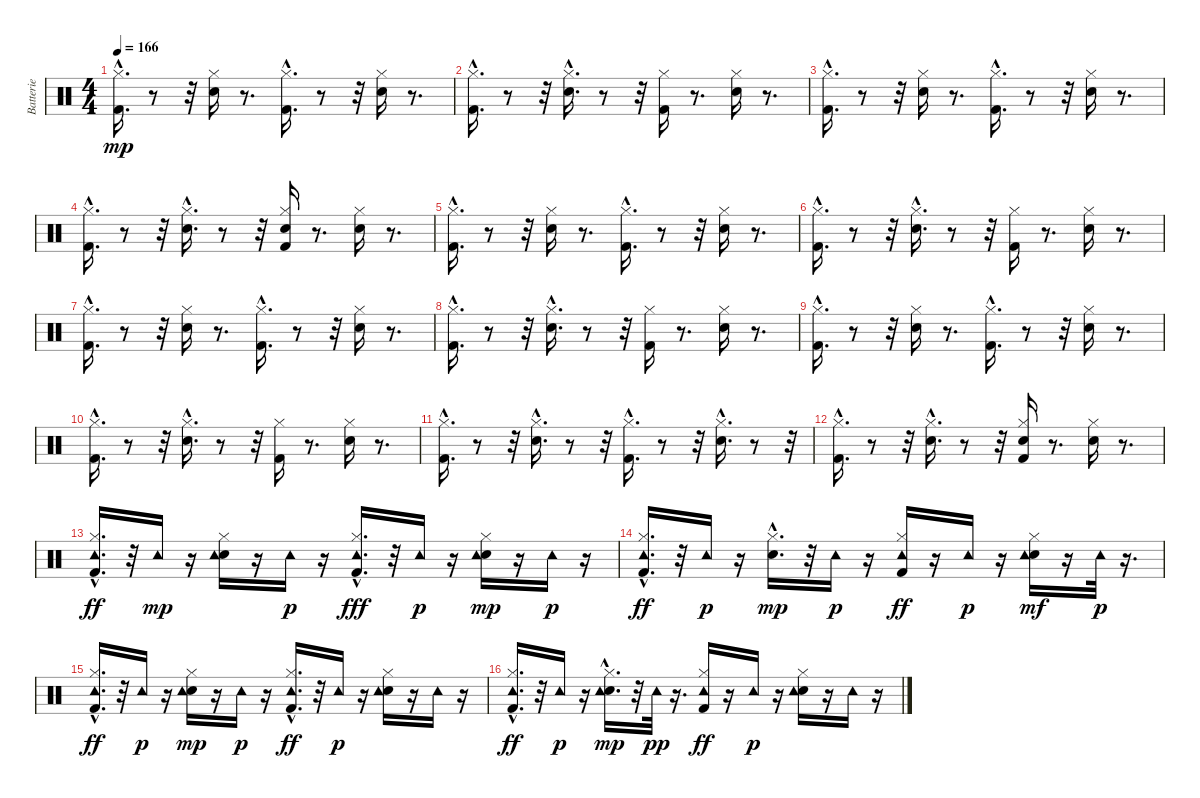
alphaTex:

\track ("Batterie" "Batterie") {instrument percussion}
\staff {score}
\articulation defaults
\ts (4 4)
\tempo 166
\clef neutral
\ks c
("Kick (hit) 2"{hac} "Hi-Hat (closed)"{hac}).16{d dy mp} r.8 r.32 ("Electric Snare (hit)" "Hi-Hat (closed)").16 r.8{d} ("Kick (hit) 2"{hac} "Hi-Hat (closed)").16{d} r.8 r.32 ("Electric Snare (hit)" "Hi-Hat (closed)").16 r.8{d} |
("Kick (hit) 2"{hac} "Hi-Hat (closed)").16{d} r.8 r.32 ("Electric Snare (hit)" "Hi-Hat (closed)"{hac}).16{d} r.8 r.32 ("Kick (hit) 2" "Hi-Hat (closed)").16 r.8{d} ("Electric Snare (hit)" "Hi-Hat (closed)").16 r.8{d} |
("Kick (hit) 2"{hac} "Hi-Hat (closed)"{hac}).16{d} r.8 r.32 ("Electric Snare (hit)" "Hi-Hat (closed)").16 r.8{d} ("Kick (hit) 2"{hac} "Hi-Hat (closed)").16{d} r.8 r.32 ("Electric Snare (hit)" "Hi-Hat (closed)").16 r.8{d} |
("Kick (hit) 2"{hac} "Hi-Hat (closed)").16{d} r.8 r.32 ("Electric Snare (hit)" "Hi-Hat (closed)"{hac}).16{d} r.8 r.32 ("Kick (hit) 2" "Electric Snare (hit)" "Hi-Hat (closed)").16 r.8{d} ("Electric Snare (hit)" "Hi-Hat (closed)").16 r.8{d} |
("Kick (hit) 2"{hac} "Hi-Hat (closed)"{hac}).16{d} r.8 r.32 ("Electric Snare (hit)" "Hi-Hat (closed)").16 r.8{d} ("Kick (hit) 2"{hac} "Hi-Hat (closed)").16{d} r.8 r.32 ("Electric Snare (hit)" "Hi-Hat (closed)").16 r.8{d} |
("Kick (hit) 2"{hac} "Hi-Hat (closed)").16{d} r.8 r.32 ("Electric Snare (hit)" "Hi-Hat (closed)"{hac}).16{d} r.8 r.32 ("Kick (hit) 2" "Hi-Hat (closed)").16 r.8{d} ("Electric Snare (hit)" "Hi-Hat (closed)").16 r.8{d} |
("Kick (hit) 2"{hac} "Hi-Hat (closed)"{hac}).16{d} r.8 r.32 ("Electric Snare (hit)" "Hi-Hat (closed)").16 r.8{d} ("Kick (hit) 2"{hac} "Hi-Hat (closed)").16{d} r.8 r.32 ("Electric Snare (hit)" "Hi-Hat (closed)").16 r.8{d} |
("Kick (hit) 2"{hac} "Hi-Hat (closed)").16{d} r.8 r.32 ("Electric Snare (hit)" "Hi-Hat (closed)"{hac}).16{d} r.8 r.32 ("Kick (hit) 2" "Hi-Hat (closed)").16 r.8{d} ("Electric Snare (hit)" "Hi-Hat (closed)").16 r.8{d} |
("Kick (hit) 2"{hac} "Hi-Hat (closed)"{hac}).16{d} r.8 r.32 ("Electric Snare (hit)" "Hi-Hat (closed)").16 r.8{d} ("Kick (hit) 2"{hac} "Hi-Hat (closed)").16{d} r.8 r.32 ("Electric Snare (hit)" "Hi-Hat (closed)").16 r.8{d} |
("Kick (hit) 2"{hac} "Hi-Hat (closed)").16{d} r.8 r.32 ("Electric Snare (hit)" "Hi-Hat (closed)"{hac}).16{d} r.8 r.32 ("Kick (hit) 2" "Hi-Hat (closed)").16 r.8{d} ("Electric Snare (hit)" "Hi-Hat (closed)").16 r.8{d} |
("Kick (hit) 2"{hac} "Hi-Hat (closed)"{hac}).16{d} r.8 r.32 ("Electric Snare (hit)"{hac} "Hi-Hat (closed)").16{d} r.8 r.32 ("Kick (hit) 2"{hac} "Hi-Hat (closed)").16{d} r.8 r.32 ("Electric Snare (hit)"{hac} "Hi-Hat (closed)").16{d} r.8 r.32 |
("Kick (hit) 2"{hac} "Hi-Hat (closed)").16{d} r.8 r.32 ("Electric Snare (hit)" "Hi-Hat (closed)"{hac}).16{d} r.8 r.32 ("Kick (hit) 2" "Electric Snare (hit)" "Hi-Hat (closed)").16 r.8{d} ("Electric Snare (hit)" "Hi-Hat (closed)").16 r.8{d} |
("Kick (hit) 2"{hac} "Hi-Hat (closed)"{hac} "Tambourine (hit)").16{d dy ff} r.32 "Tambourine (hit)".16{dy mp} r.16 ("Electric Snare (hit)" "Hi-Hat (closed)" "Tambourine (hit)").16 r.16 "Tambourine (hit)".16{dy p} r.16 ("Kick (hit) 2"{hac} "Hi-Hat (closed)" "Tambourine (hit)").16{d dy fff} r.32 "Tambourine (hit)".16{dy p} r.16 ("Electric Snare (hit)" "Hi-Hat (closed)" "Tambourine (hit)").16{dy mp} r.16 "Tambourine (hit)".16{dy p} r.16 |
("Kick (hit) 2"{hac} "Hi-Hat (closed)" "Tambourine (hit)").16{d dy ff} r.32 "Tambourine (hit)".16{dy p} r.16 ("Electric Snare (hit)" "Hi-Hat (closed)"{hac}).16{d dy mp} r.32 "Tambourine (hit)".16{dy p} r.16 ("Kick (hit) 2" "Hi-Hat (closed)" "Tambourine (hit)").16{dy ff} r.16 "Tambourine (hit)".16{dy p} r.16 ("Electric Snare (hit)" "Hi-Hat (closed)" "Tambourine (hit)").16{dy mf} r.16 "Tambourine (hit)".32{dy p} r.16{d} |
("Kick (hit) 2"{hac} "Hi-Hat (closed)"{hac} "Tambourine (hit)").16{d dy ff} r.32 "Tambourine (hit)".16{dy p} r.16 ("Electric Snare (hit)" "Hi-Hat (closed)" "Tambourine (hit)").16{dy mp} r.16 "Tambourine (hit)".16{dy p} r.16 ("Kick (hit) 2"{hac} "Hi-Hat (closed)" "Tambourine (hit)").16{d dy ff} r.32 "Tambourine (hit)".16{dy p} r.16 ("Electric Snare (hit)" "Hi-Hat (closed)" "Tambourine (hit)").16 r.16 "Tambourine (hit)".16 r.16 |
("Kick (hit) 2"{hac} "Hi-Hat (closed)" "Tambourine (hit)").16{d dy ff} r.32 "Tambourine (hit)".16{dy p} r.16 ("Electric Snare (hit)" "Hi-Hat (closed)"{hac} "Tambourine (hit)").16{d dy mp} r.32 "Tambourine (hit)".32{dy pp} r.16{d} ("Kick (hit) 2" "Hi-Hat (closed)" "Tambourine (hit)").16{dy ff} r.16 "Tambourine (hit)".16{dy p} r.16 ("Electric Snare (hit)" "Hi-Hat (closed)" "Tambourine (hit)").16 r.16 "Tambourine (hit)".16 r.16
